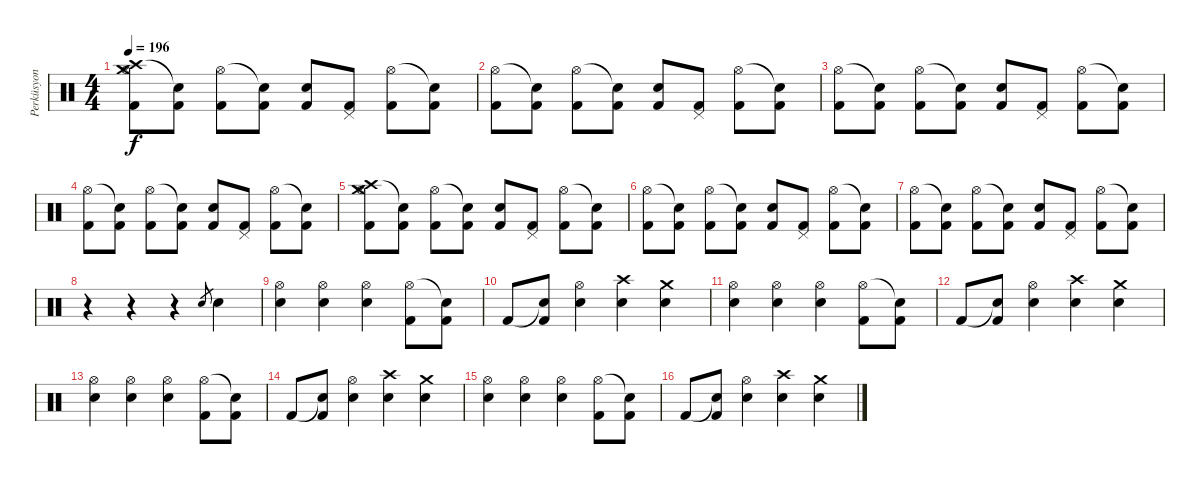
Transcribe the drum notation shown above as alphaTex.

\track ("Perküsyon" "Perküsyon") {instrument percussion}
\staff {score}
\articulation defaults
\ts (4 4)
\tempo 196
\clef neutral
\ks c
("Crash high (hit)" "Hi-Hat (open)" "Crash medium (hit)" "Kick (hit) 2").8{dy f} ("Snare (hit)"{t} "Kick (hit) 2").8 ("Hi-Hat (open)" "Kick (hit) 2").8 ("Snare (hit)"{t} "Kick (hit) 2").8 ("Snare (hit) 2" "Kick (hit) 2").8 ("Pedal Hi-Hat (hit)" "Kick (hit) 2").8 ("Hi-Hat (open)" "Kick (hit) 2").8 ("Snare (hit)"{t} "Kick (hit) 2").8 |
("Hi-Hat (open)" "Kick (hit) 2").8 ("Snare (hit)"{t} "Kick (hit) 2").8 ("Hi-Hat (open)" "Kick (hit) 2").8 ("Snare (hit)"{t} "Kick (hit) 2").8 ("Snare (hit) 2" "Kick (hit) 2").8 ("Pedal Hi-Hat (hit)" "Kick (hit) 2").8 ("Hi-Hat (open)" "Kick (hit) 2").8 ("Snare (hit)"{t} "Kick (hit) 2").8 |
("Hi-Hat (open)" "Kick (hit) 2").8 ("Snare (hit)"{t} "Kick (hit) 2").8 ("Hi-Hat (open)" "Kick (hit) 2").8 ("Snare (hit)"{t} "Kick (hit) 2").8 ("Snare (hit) 2" "Kick (hit) 2").8 ("Pedal Hi-Hat (hit)" "Kick (hit) 2").8 ("Hi-Hat (open)" "Kick (hit) 2").8 ("Snare (hit)"{t} "Kick (hit) 2").8 |
("Hi-Hat (open)" "Kick (hit) 2").8 ("Snare (hit)"{t} "Kick (hit) 2").8 ("Hi-Hat (open)" "Kick (hit) 2").8 ("Snare (hit)"{t} "Kick (hit) 2").8 ("Snare (hit) 2" "Kick (hit) 2").8 ("Pedal Hi-Hat (hit)" "Kick (hit) 2").8 ("Hi-Hat (open)" "Kick (hit) 2").8 ("Snare (hit)"{t} "Kick (hit) 2").8 |
("Crash high (hit)" "Hi-Hat (open)" "Crash medium (hit)" "Kick (hit) 2").8 ("Snare (hit)"{t} "Kick (hit) 2").8 ("Hi-Hat (open)" "Kick (hit) 2").8 ("Snare (hit)"{t} "Kick (hit) 2").8 ("Snare (hit) 2" "Kick (hit) 2").8 ("Pedal Hi-Hat (hit)" "Kick (hit) 2").8 ("Hi-Hat (open)" "Kick (hit) 2").8 ("Snare (hit)"{t} "Kick (hit) 2").8 |
("Hi-Hat (open)" "Kick (hit) 2").8 ("Snare (hit)"{t} "Kick (hit) 2").8 ("Hi-Hat (open)" "Kick (hit) 2").8 ("Snare (hit)"{t} "Kick (hit) 2").8 ("Snare (hit) 2" "Kick (hit) 2").8 ("Pedal Hi-Hat (hit)" "Kick (hit) 2").8 ("Hi-Hat (open)" "Kick (hit) 2").8 ("Snare (hit)"{t} "Kick (hit) 2").8 |
("Hi-Hat (open)" "Kick (hit) 2").8 ("Snare (hit)"{t} "Kick (hit) 2").8 ("Hi-Hat (open)" "Kick (hit) 2").8 ("Snare (hit)"{t} "Kick (hit) 2").8 ("Snare (hit) 2" "Kick (hit) 2").8 ("Pedal Hi-Hat (hit)" "Kick (hit) 2").8 ("Hi-Hat (open)" "Kick (hit) 2").8 ("Snare (hit)"{t} "Kick (hit) 2").8 |
r.4 r.4 r.4 "Electric Snare (hit)".8{gr} "Electric Snare (hit)".4 |
("Electric Snare (hit)" "Hi-Hat (open)").4 ("Electric Snare (hit)" "Hi-Hat (open)").4 ("Electric Snare (hit)" "Hi-Hat (open)").4 ("Hi-Hat (open)" "Kick (hit) 2").8 ("Snare (hit)"{t} "Kick (hit) 2").8 |
"Kick (hit) 2".8 ("Snare (hit)"{t} "Kick (hit) 2").8 ("Electric Snare (hit)" "Hi-Hat (open)").4 ("Snare (hit) 2" "Crash high (hit)").4 ("Crash medium (hit)" "Snare (hit) 2").4 |
("Electric Snare (hit)" "Hi-Hat (open)").4 ("Electric Snare (hit)" "Hi-Hat (open)").4 ("Electric Snare (hit)" "Hi-Hat (open)").4 ("Hi-Hat (open)" "Kick (hit) 2").8 ("Snare (hit)"{t} "Kick (hit) 2").8 |
"Kick (hit) 2".8 ("Snare (hit)"{t} "Kick (hit) 2").8 ("Electric Snare (hit)" "Hi-Hat (open)").4 ("Snare (hit) 2" "Crash high (hit)").4 ("Crash medium (hit)" "Snare (hit) 2").4 |
("Electric Snare (hit)" "Hi-Hat (open)").4 ("Electric Snare (hit)" "Hi-Hat (open)").4 ("Electric Snare (hit)" "Hi-Hat (open)").4 ("Hi-Hat (open)" "Kick (hit) 2").8 ("Snare (hit)"{t} "Kick (hit) 2").8 |
"Kick (hit) 2".8 ("Snare (hit)"{t} "Kick (hit) 2").8 ("Electric Snare (hit)" "Hi-Hat (open)").4 ("Snare (hit) 2" "Crash high (hit)").4 ("Crash medium (hit)" "Snare (hit) 2").4 |
("Electric Snare (hit)" "Hi-Hat (open)").4 ("Electric Snare (hit)" "Hi-Hat (open)").4 ("Electric Snare (hit)" "Hi-Hat (open)").4 ("Hi-Hat (open)" "Kick (hit) 2").8 ("Snare (hit)"{t} "Kick (hit) 2").8 |
"Kick (hit) 2".8 ("Snare (hit)"{t} "Kick (hit) 2").8 ("Electric Snare (hit)" "Hi-Hat (open)").4 ("Snare (hit) 2" "Crash high (hit)").4 ("Crash medium (hit)" "Snare (hit) 2").4
